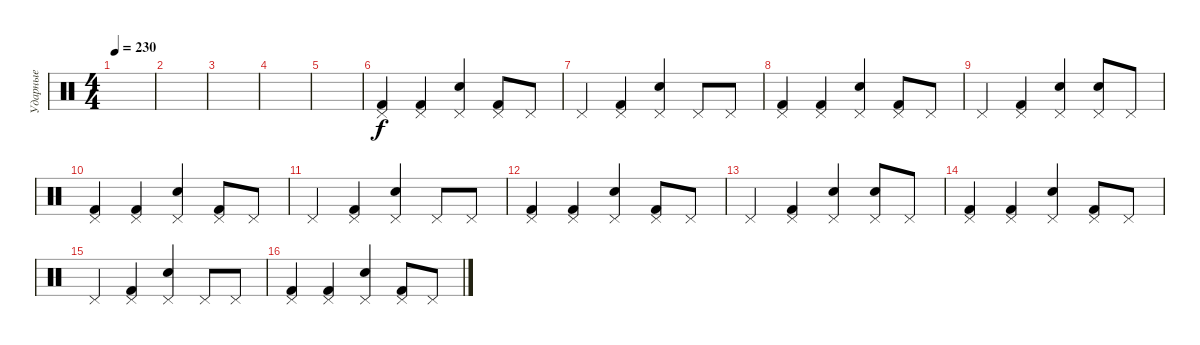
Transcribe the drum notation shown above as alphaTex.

\track ("Ударные" "Ударные") {instrument percussion}
\staff {score}
\articulation defaults
\ts (4 4)
\tempo 230
\clef neutral
\ks c
|
|
|
|
|
("Pedal Hi-Hat (hit)" "Kick (hit) 2").4 ("Pedal Hi-Hat (hit)" "Kick (hit) 2").4 ("Pedal Hi-Hat (hit)" "Snare (hit) 2").4 ("Pedal Hi-Hat (hit)" "Kick (hit) 2").8 "Pedal Hi-Hat (hit)".8 |
"Pedal Hi-Hat (hit)".4 ("Pedal Hi-Hat (hit)" "Kick (hit) 2").4 ("Pedal Hi-Hat (hit)" "Snare (hit) 2").4 "Pedal Hi-Hat (hit)".8 "Pedal Hi-Hat (hit)".8 |
("Pedal Hi-Hat (hit)" "Kick (hit) 2").4 ("Pedal Hi-Hat (hit)" "Kick (hit) 2").4 ("Pedal Hi-Hat (hit)" "Snare (hit) 2").4 ("Pedal Hi-Hat (hit)" "Kick (hit) 2").8 "Pedal Hi-Hat (hit)".8 |
"Pedal Hi-Hat (hit)".4 ("Pedal Hi-Hat (hit)" "Kick (hit) 2").4 ("Pedal Hi-Hat (hit)" "Snare (hit) 2").4 ("Pedal Hi-Hat (hit)" "Snare (hit) 2").8 "Pedal Hi-Hat (hit)".8 |
("Pedal Hi-Hat (hit)" "Kick (hit) 2").4 ("Pedal Hi-Hat (hit)" "Kick (hit) 2").4 ("Pedal Hi-Hat (hit)" "Snare (hit) 2").4 ("Pedal Hi-Hat (hit)" "Kick (hit) 2").8 "Pedal Hi-Hat (hit)".8 |
"Pedal Hi-Hat (hit)".4 ("Pedal Hi-Hat (hit)" "Kick (hit) 2").4 ("Pedal Hi-Hat (hit)" "Snare (hit) 2").4 "Pedal Hi-Hat (hit)".8 "Pedal Hi-Hat (hit)".8 |
("Pedal Hi-Hat (hit)" "Kick (hit) 2").4 ("Pedal Hi-Hat (hit)" "Kick (hit) 2").4 ("Pedal Hi-Hat (hit)" "Snare (hit) 2").4 ("Pedal Hi-Hat (hit)" "Kick (hit) 2").8 "Pedal Hi-Hat (hit)".8 |
"Pedal Hi-Hat (hit)".4 ("Pedal Hi-Hat (hit)" "Kick (hit) 2").4 ("Pedal Hi-Hat (hit)" "Snare (hit) 2").4 ("Pedal Hi-Hat (hit)" "Snare (hit) 2").8 "Pedal Hi-Hat (hit)".8 |
("Pedal Hi-Hat (hit)" "Kick (hit) 2").4 ("Pedal Hi-Hat (hit)" "Kick (hit) 2").4 ("Pedal Hi-Hat (hit)" "Snare (hit) 2").4 ("Pedal Hi-Hat (hit)" "Kick (hit) 2").8 "Pedal Hi-Hat (hit)".8 |
"Pedal Hi-Hat (hit)".4 ("Pedal Hi-Hat (hit)" "Kick (hit) 2").4 ("Pedal Hi-Hat (hit)" "Snare (hit) 2").4 "Pedal Hi-Hat (hit)".8 "Pedal Hi-Hat (hit)".8 |
("Pedal Hi-Hat (hit)" "Kick (hit) 2").4 ("Pedal Hi-Hat (hit)" "Kick (hit) 2").4 ("Pedal Hi-Hat (hit)" "Snare (hit) 2").4 ("Pedal Hi-Hat (hit)" "Kick (hit) 2").8 "Pedal Hi-Hat (hit)".8
